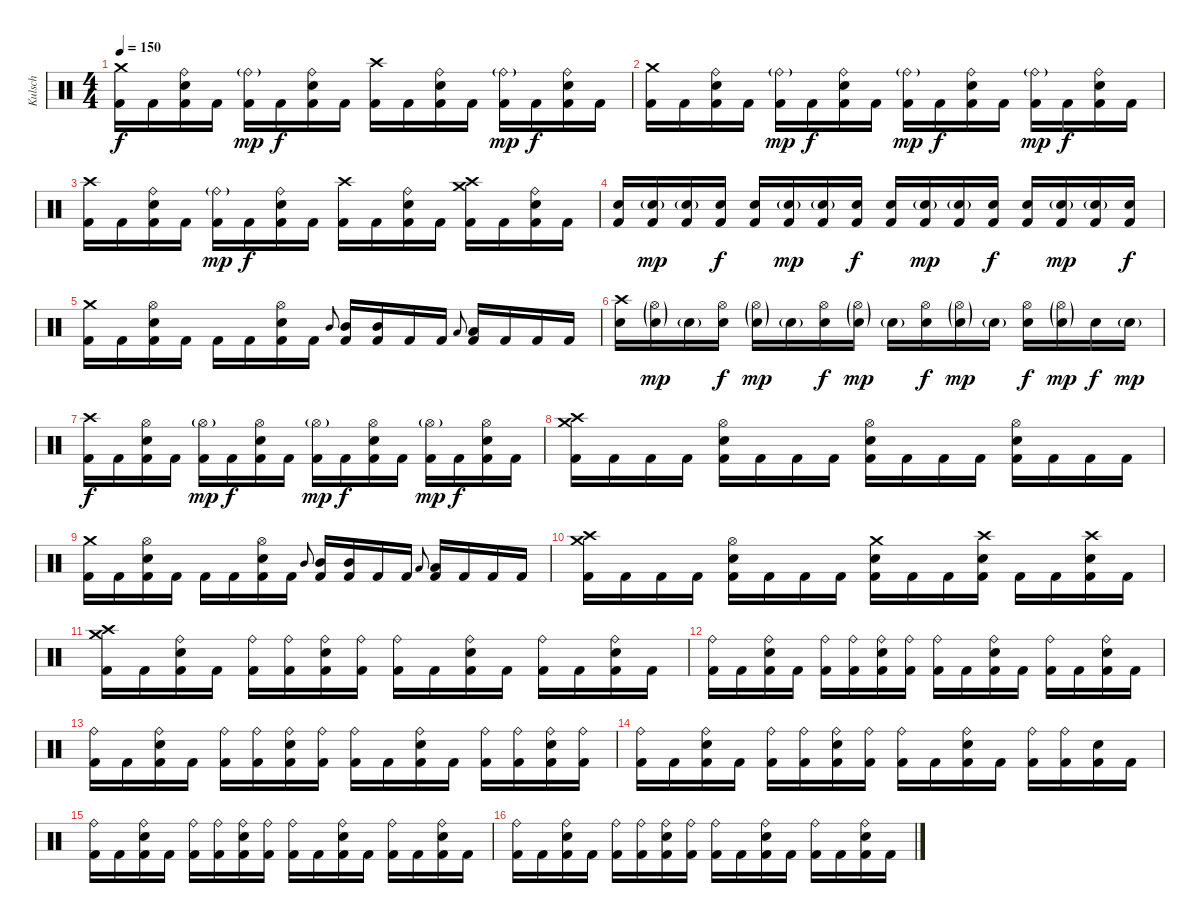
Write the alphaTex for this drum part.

\track ("Kulsch" "Kulsch") {instrument percussion}
\staff {score}
\articulation defaults
\ts (4 4)
\tempo 150
\clef neutral
\ks c
("Crash medium (hit)" "Kick (hit) 2").16{dy f} "Kick (hit) 2".16 ("Ride (bell)" "Snare (hit) 2" "Kick (hit) 2").16 "Kick (hit) 2".16 ("Ride (bell)"{g} "Kick (hit) 2").16{dy mp} "Kick (hit) 2".16{dy f} ("Ride (bell)" "Snare (hit) 2" "Kick (hit) 2").16 "Kick (hit) 2".16 ("Crash high (hit)" "Kick (hit) 2").16 "Kick (hit) 2".16 ("Ride (bell)" "Snare (hit) 2" "Kick (hit) 2").16 "Kick (hit) 2".16 ("Ride (bell)"{g} "Kick (hit) 2").16{dy mp} "Kick (hit) 2".16{dy f} ("Ride (bell)" "Snare (hit) 2" "Kick (hit) 2").16 "Kick (hit) 2".16 |
("Crash medium (hit)" "Kick (hit) 2").16 "Kick (hit) 2".16 ("Ride (bell)" "Snare (hit) 2" "Kick (hit) 2").16 "Kick (hit) 2".16 ("Ride (bell)"{g} "Kick (hit) 2").16{dy mp} "Kick (hit) 2".16{dy f} ("Ride (bell)" "Snare (hit) 2" "Kick (hit) 2").16 "Kick (hit) 2".16 ("Ride (bell)"{g} "Kick (hit) 2").16{dy mp} "Kick (hit) 2".16{dy f} ("Ride (bell)" "Snare (hit) 2" "Kick (hit) 2").16 "Kick (hit) 2".16 ("Ride (bell)"{g} "Kick (hit) 2").16{dy mp} "Kick (hit) 2".16{dy f} ("Ride (bell)" "Snare (hit) 2" "Kick (hit) 2").16 "Kick (hit) 2".16 |
("Crash high (hit)" "Kick (hit) 2").16 "Kick (hit) 2".16 ("Ride (bell)" "Snare (hit) 2" "Kick (hit) 2").16 "Kick (hit) 2".16 ("Ride (bell)"{g} "Kick (hit) 2").16{dy mp} "Kick (hit) 2".16{dy f} ("Ride (bell)" "Snare (hit) 2" "Kick (hit) 2").16 "Kick (hit) 2".16 ("Crash high (hit)" "Kick (hit) 2").16 "Kick (hit) 2".16 ("Ride (bell)" "Snare (hit) 2" "Kick (hit) 2").16 "Kick (hit) 2".16 ("Crash medium (hit)" "Crash high (hit)" "Kick (hit) 2").16 "Kick (hit) 2".16 ("Ride (bell)" "Snare (hit) 2" "Kick (hit) 2").16 "Kick (hit) 2".16 |
("Snare (hit) 2" "Kick (hit) 2").16 ("Snare (hit) 2"{g} "Kick (hit) 2").16{dy mp} ("Snare (hit) 2"{g} "Kick (hit) 2").16 ("Snare (hit) 2" "Kick (hit) 2").16{dy f} ("Snare (hit) 2" "Kick (hit) 2").16 ("Snare (hit) 2"{g} "Kick (hit) 2").16{dy mp} ("Snare (hit) 2"{g} "Kick (hit) 2").16 ("Snare (hit) 2" "Kick (hit) 2").16{dy f} ("Snare (hit) 2" "Kick (hit) 2").16 ("Snare (hit) 2"{g} "Kick (hit) 2").16{dy mp} ("Snare (hit) 2"{g} "Kick (hit) 2").16 ("Snare (hit) 2" "Kick (hit) 2").16{dy f} ("Snare (hit) 2" "Kick (hit) 2").16 ("Snare (hit) 2"{g} "Kick (hit) 2").16{dy mp} ("Snare (hit) 2"{g} "Kick (hit) 2").16 ("Snare (hit) 2" "Kick (hit) 2").16{dy f} |
("Crash medium (hit)" "Kick (hit) 2").16 "Kick (hit) 2".16 ("Hi-Hat (open)" "Snare (hit) 2" "Kick (hit) 2").16 "Kick (hit) 2".16 "Kick (hit) 2".16 "Kick (hit) 2".16 ("Hi-Hat (open)" "Snare (hit) 2" "Kick (hit) 2").16 "Kick (hit) 2".16 "Mid Tom (hit)".8{gr onbeat} ("Mid Tom (hit)" "Kick (hit) 2").16 ("Mid Tom (hit)" "Kick (hit) 2").16 "Kick (hit) 2".16 "Kick (hit) 2".16 "Low Tom (hit)".8{gr onbeat} ("Low Tom (hit)" "Kick (hit) 2").16 "Kick (hit) 2".16 "Kick (hit) 2".16 "Kick (hit) 2".16 |
("Crash high (hit)" "Snare (hit) 2").16 ("Hi-Hat (open)"{g} "Snare (hit) 2"{g}).16{dy mp} "Snare (hit) 2"{g}.16 ("Hi-Hat (open)" "Snare (hit) 2").16{dy f} ("Hi-Hat (open)"{g} "Snare (hit) 2"{g}).16{dy mp} "Snare (hit) 2"{g}.16 ("Hi-Hat (open)" "Snare (hit) 2").16{dy f} ("Hi-Hat (open)"{g} "Snare (hit) 2"{g}).16{dy mp} "Snare (hit) 2"{g}.16 ("Hi-Hat (open)" "Snare (hit) 2").16{dy f} ("Hi-Hat (open)"{g} "Snare (hit) 2"{g}).16{dy mp} "Snare (hit) 2"{g}.16 ("Hi-Hat (open)" "Snare (hit) 2").16{dy f} ("Hi-Hat (open)"{g} "Snare (hit) 2"{g}).16{dy mp} "Snare (hit) 2".16{dy f} "Snare (hit) 2"{g}.16{dy mp} |
("Crash high (hit)" "Kick (hit) 2").16{dy f} "Kick (hit) 2".16 ("Hi-Hat (open)" "Snare (hit) 2" "Kick (hit) 2").16 "Kick (hit) 2".16 ("Hi-Hat (open)"{g} "Kick (hit) 2").16{dy mp} "Kick (hit) 2".16{dy f} ("Hi-Hat (open)" "Snare (hit) 2" "Kick (hit) 2").16 "Kick (hit) 2".16 ("Hi-Hat (open)"{g} "Kick (hit) 2").16{dy mp} "Kick (hit) 2".16{dy f} ("Hi-Hat (open)" "Snare (hit) 2" "Kick (hit) 2").16 "Kick (hit) 2".16 ("Hi-Hat (open)"{g} "Kick (hit) 2").16{dy mp} "Kick (hit) 2".16{dy f} ("Hi-Hat (open)" "Snare (hit) 2" "Kick (hit) 2").16 "Kick (hit) 2".16 |
("Crash medium (hit)" "Crash high (hit)" "Kick (hit) 2").16 "Kick (hit) 2".16 "Kick (hit) 2".16 "Kick (hit) 2".16 ("Hi-Hat (open)" "Snare (hit) 2" "Kick (hit) 2").16 "Kick (hit) 2".16 "Kick (hit) 2".16 "Kick (hit) 2".16 ("Hi-Hat (open)" "Snare (hit) 2" "Kick (hit) 2").16 "Kick (hit) 2".16 "Kick (hit) 2".16 "Kick (hit) 2".16 ("Hi-Hat (open)" "Snare (hit) 2" "Kick (hit) 2").16 "Kick (hit) 2".16 "Kick (hit) 2".16 "Kick (hit) 2".16 |
("Crash medium (hit)" "Kick (hit) 2").16 "Kick (hit) 2".16 ("Hi-Hat (open)" "Snare (hit) 2" "Kick (hit) 2").16 "Kick (hit) 2".16 "Kick (hit) 2".16 "Kick (hit) 2".16 ("Hi-Hat (open)" "Snare (hit) 2" "Kick (hit) 2").16 "Kick (hit) 2".16 "Mid Tom (hit)".8{gr onbeat} ("Mid Tom (hit)" "Kick (hit) 2").16 ("Mid Tom (hit)" "Kick (hit) 2").16 "Kick (hit) 2".16 "Kick (hit) 2".16 "Low Tom (hit)".8{gr onbeat} ("Low Tom (hit)" "Kick (hit) 2").16 "Kick (hit) 2".16 "Kick (hit) 2".16 "Kick (hit) 2".16 |
("Crash medium (hit)" "Crash high (hit)" "Kick (hit) 2").16 "Kick (hit) 2".16 "Kick (hit) 2".16 "Kick (hit) 2".16 ("Hi-Hat (open)" "Snare (hit) 2" "Kick (hit) 2").16 "Kick (hit) 2".16 "Kick (hit) 2".16 "Kick (hit) 2".16 ("Crash medium (hit)" "Snare (hit) 2" "Kick (hit) 2").16 "Kick (hit) 2".16 "Kick (hit) 2".16 ("Crash high (hit)" "Snare (hit) 2" "Kick (hit) 2").16 "Kick (hit) 2".16 "Kick (hit) 2".16 ("Crash high (hit)" "Snare (hit) 2" "Kick (hit) 2").16 "Kick (hit) 2".16 |
("Crash medium (hit)" "Crash high (hit)" "Kick (hit) 2").16 "Kick (hit) 2".16 ("Ride (bell)" "Snare (hit) 2" "Kick (hit) 2").16 "Kick (hit) 2".16 ("Ride (bell)" "Kick (hit) 2").16 ("Ride (bell)" "Kick (hit) 2").16 ("Ride (bell)" "Snare (hit) 2" "Kick (hit) 2").16 ("Ride (bell)" "Kick (hit) 2").16 ("Ride (bell)" "Kick (hit) 2").16 "Kick (hit) 2".16 ("Ride (bell)" "Snare (hit) 2" "Kick (hit) 2").16 "Kick (hit) 2".16 ("Ride (bell)" "Kick (hit) 2").16 "Kick (hit) 2".16 ("Ride (bell)" "Snare (hit) 2" "Kick (hit) 2").16 "Kick (hit) 2".16 |
("Ride (bell)" "Kick (hit) 2").16 "Kick (hit) 2".16 ("Ride (bell)" "Snare (hit) 2" "Kick (hit) 2").16 "Kick (hit) 2".16 ("Ride (bell)" "Kick (hit) 2").16 ("Ride (bell)" "Kick (hit) 2").16 ("Ride (bell)" "Snare (hit) 2" "Kick (hit) 2").16 ("Ride (bell)" "Kick (hit) 2").16 ("Ride (bell)" "Kick (hit) 2").16 "Kick (hit) 2".16 ("Ride (bell)" "Snare (hit) 2" "Kick (hit) 2").16 "Kick (hit) 2".16 ("Ride (bell)" "Kick (hit) 2").16 "Kick (hit) 2".16 ("Ride (bell)" "Snare (hit) 2" "Kick (hit) 2").16 "Kick (hit) 2".16 |
("Ride (bell)" "Kick (hit) 2").16 "Kick (hit) 2".16 ("Ride (bell)" "Snare (hit) 2" "Kick (hit) 2").16 "Kick (hit) 2".16 ("Ride (bell)" "Kick (hit) 2").16 ("Ride (bell)" "Kick (hit) 2").16 ("Ride (bell)" "Snare (hit) 2" "Kick (hit) 2").16 ("Ride (bell)" "Kick (hit) 2").16 ("Ride (bell)" "Kick (hit) 2").16 "Kick (hit) 2".16 ("Ride (bell)" "Snare (hit) 2" "Kick (hit) 2").16 "Kick (hit) 2".16 ("Ride (bell)" "Kick (hit) 2").16 ("Ride (bell)" "Kick (hit) 2").16 ("Ride (bell)" "Snare (hit) 2" "Kick (hit) 2").16 ("Ride (bell)" "Kick (hit) 2").16 |
("Ride (bell)" "Kick (hit) 2").16 "Kick (hit) 2".16 ("Ride (bell)" "Snare (hit) 2" "Kick (hit) 2").16 "Kick (hit) 2".16 ("Ride (bell)" "Kick (hit) 2").16 ("Ride (bell)" "Kick (hit) 2").16 ("Ride (bell)" "Snare (hit) 2" "Kick (hit) 2").16 ("Ride (bell)" "Kick (hit) 2").16 ("Ride (bell)" "Kick (hit) 2").16 "Kick (hit) 2".16 ("Ride (bell)" "Snare (hit) 2" "Kick (hit) 2").16 "Kick (hit) 2".16 ("Ride (bell)" "Kick (hit) 2").16 ("Ride (bell)" "Kick (hit) 2").16 ("Snare (hit) 2" "Kick (hit) 2").16 "Kick (hit) 2".16 |
("Ride (bell)" "Kick (hit) 2").16 "Kick (hit) 2".16 ("Ride (bell)" "Snare (hit) 2" "Kick (hit) 2").16 "Kick (hit) 2".16 ("Ride (bell)" "Kick (hit) 2").16 ("Ride (bell)" "Kick (hit) 2").16 ("Ride (bell)" "Snare (hit) 2" "Kick (hit) 2").16 ("Ride (bell)" "Kick (hit) 2").16 ("Ride (bell)" "Kick (hit) 2").16 "Kick (hit) 2".16 ("Ride (bell)" "Snare (hit) 2" "Kick (hit) 2").16 "Kick (hit) 2".16 ("Ride (bell)" "Kick (hit) 2").16 "Kick (hit) 2".16 ("Ride (bell)" "Snare (hit) 2" "Kick (hit) 2").16 "Kick (hit) 2".16 |
("Ride (bell)" "Kick (hit) 2").16 "Kick (hit) 2".16 ("Ride (bell)" "Snare (hit) 2" "Kick (hit) 2").16 "Kick (hit) 2".16 ("Ride (bell)" "Kick (hit) 2").16 ("Ride (bell)" "Kick (hit) 2").16 ("Ride (bell)" "Snare (hit) 2" "Kick (hit) 2").16 ("Ride (bell)" "Kick (hit) 2").16 ("Ride (bell)" "Kick (hit) 2").16 "Kick (hit) 2".16 ("Ride (bell)" "Snare (hit) 2" "Kick (hit) 2").16 "Kick (hit) 2".16 ("Ride (bell)" "Kick (hit) 2").16 "Kick (hit) 2".16 ("Ride (bell)" "Snare (hit) 2" "Kick (hit) 2").16 "Kick (hit) 2".16
